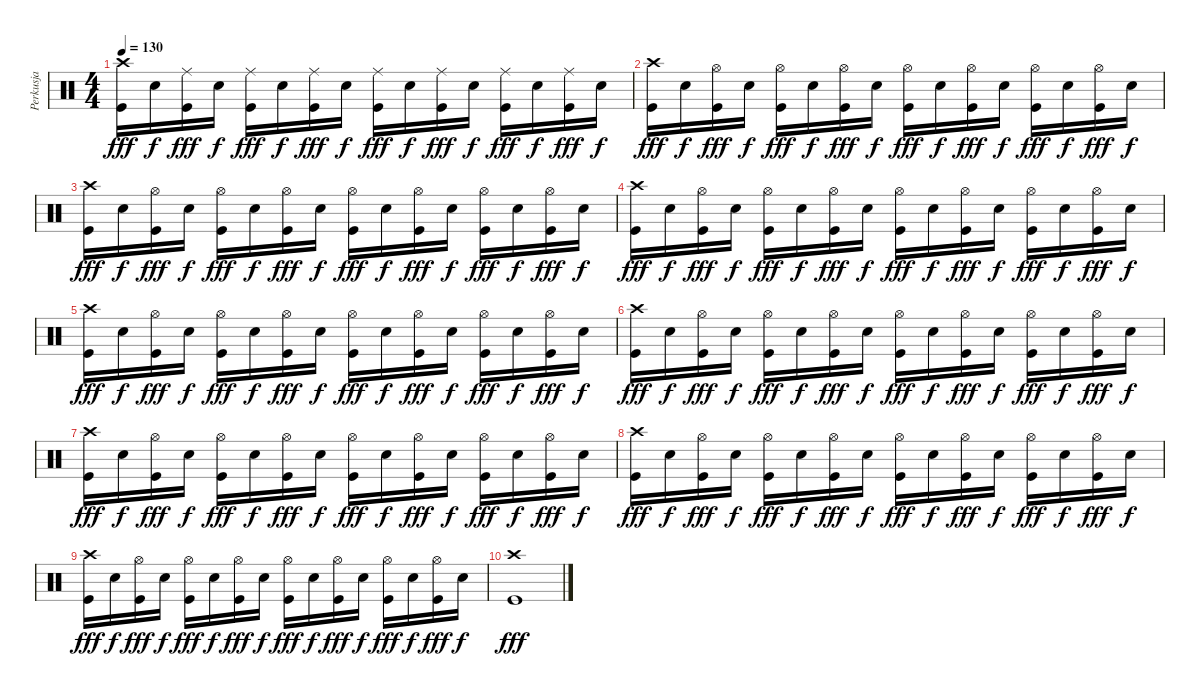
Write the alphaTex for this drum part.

\track ("Perkusja" "Perkusja") {instrument percussion}
\staff {score}
\articulation defaults
\ts (4 4)
\tempo 130
\clef neutral
\ks c
("Crash high (hit)" "Kick (hit)").16{dy fff} "Snare (hit) 2".16{dy f} ("Ride (middle)" "Kick (hit)").16{dy fff} "Snare (hit) 2".16{dy f} ("Ride (middle)" "Kick (hit)").16{dy fff} "Snare (hit) 2".16{dy f} ("Ride (middle)" "Kick (hit)").16{dy fff} "Snare (hit) 2".16{dy f} ("Ride (middle)" "Kick (hit)").16{dy fff} "Snare (hit) 2".16{dy f} ("Ride (middle)" "Kick (hit)").16{dy fff} "Snare (hit) 2".16{dy f} ("Ride (middle)" "Kick (hit)").16{dy fff} "Snare (hit) 2".16{dy f} ("Ride (middle)" "Kick (hit)").16{dy fff} "Snare (hit) 2".16{dy f} |
("Crash high (hit)" "Kick (hit)").16{dy fff} "Snare (hit) 2".16{dy f} ("Hi-Hat (open)" "Kick (hit)").16{dy fff} "Snare (hit) 2".16{dy f} ("Hi-Hat (open)" "Kick (hit)").16{dy fff} "Snare (hit) 2".16{dy f} ("Hi-Hat (open)" "Kick (hit)").16{dy fff} "Snare (hit) 2".16{dy f} ("Hi-Hat (open)" "Kick (hit)").16{dy fff} "Snare (hit) 2".16{dy f} ("Hi-Hat (open)" "Kick (hit)").16{dy fff} "Snare (hit) 2".16{dy f} ("Hi-Hat (open)" "Kick (hit)").16{dy fff} "Snare (hit) 2".16{dy f} ("Hi-Hat (open)" "Kick (hit)").16{dy fff} "Snare (hit) 2".16{dy f} |
("Crash high (hit)" "Kick (hit)").16{dy fff} "Snare (hit) 2".16{dy f} ("Hi-Hat (open)" "Kick (hit)").16{dy fff} "Snare (hit) 2".16{dy f} ("Hi-Hat (open)" "Kick (hit)").16{dy fff} "Snare (hit) 2".16{dy f} ("Hi-Hat (open)" "Kick (hit)").16{dy fff} "Snare (hit) 2".16{dy f} ("Hi-Hat (open)" "Kick (hit)").16{dy fff} "Snare (hit) 2".16{dy f} ("Hi-Hat (open)" "Kick (hit)").16{dy fff} "Snare (hit) 2".16{dy f} ("Hi-Hat (open)" "Kick (hit)").16{dy fff} "Snare (hit) 2".16{dy f} ("Hi-Hat (open)" "Kick (hit)").16{dy fff} "Snare (hit) 2".16{dy f} |
("Crash high (hit)" "Kick (hit)").16{dy fff} "Snare (hit) 2".16{dy f} ("Hi-Hat (open)" "Kick (hit)").16{dy fff} "Snare (hit) 2".16{dy f} ("Hi-Hat (open)" "Kick (hit)").16{dy fff} "Snare (hit) 2".16{dy f} ("Hi-Hat (open)" "Kick (hit)").16{dy fff} "Snare (hit) 2".16{dy f} ("Hi-Hat (open)" "Kick (hit)").16{dy fff} "Snare (hit) 2".16{dy f} ("Hi-Hat (open)" "Kick (hit)").16{dy fff} "Snare (hit) 2".16{dy f} ("Hi-Hat (open)" "Kick (hit)").16{dy fff} "Snare (hit) 2".16{dy f} ("Hi-Hat (open)" "Kick (hit)").16{dy fff} "Snare (hit) 2".16{dy f} |
("Crash high (hit)" "Kick (hit)").16{dy fff} "Snare (hit) 2".16{dy f} ("Hi-Hat (open)" "Kick (hit)").16{dy fff} "Snare (hit) 2".16{dy f} ("Hi-Hat (open)" "Kick (hit)").16{dy fff} "Snare (hit) 2".16{dy f} ("Hi-Hat (open)" "Kick (hit)").16{dy fff} "Snare (hit) 2".16{dy f} ("Hi-Hat (open)" "Kick (hit)").16{dy fff} "Snare (hit) 2".16{dy f} ("Hi-Hat (open)" "Kick (hit)").16{dy fff} "Snare (hit) 2".16{dy f} ("Hi-Hat (open)" "Kick (hit)").16{dy fff} "Snare (hit) 2".16{dy f} ("Hi-Hat (open)" "Kick (hit)").16{dy fff} "Snare (hit) 2".16{dy f} |
("Crash high (hit)" "Kick (hit)").16{dy fff} "Snare (hit) 2".16{dy f} ("Hi-Hat (open)" "Kick (hit)").16{dy fff} "Snare (hit) 2".16{dy f} ("Hi-Hat (open)" "Kick (hit)").16{dy fff} "Snare (hit) 2".16{dy f} ("Hi-Hat (open)" "Kick (hit)").16{dy fff} "Snare (hit) 2".16{dy f} ("Hi-Hat (open)" "Kick (hit)").16{dy fff} "Snare (hit) 2".16{dy f} ("Hi-Hat (open)" "Kick (hit)").16{dy fff} "Snare (hit) 2".16{dy f} ("Hi-Hat (open)" "Kick (hit)").16{dy fff} "Snare (hit) 2".16{dy f} ("Hi-Hat (open)" "Kick (hit)").16{dy fff} "Snare (hit) 2".16{dy f} |
("Crash high (hit)" "Kick (hit)").16{dy fff} "Snare (hit) 2".16{dy f} ("Hi-Hat (open)" "Kick (hit)").16{dy fff} "Snare (hit) 2".16{dy f} ("Hi-Hat (open)" "Kick (hit)").16{dy fff} "Snare (hit) 2".16{dy f} ("Hi-Hat (open)" "Kick (hit)").16{dy fff} "Snare (hit) 2".16{dy f} ("Hi-Hat (open)" "Kick (hit)").16{dy fff} "Snare (hit) 2".16{dy f} ("Hi-Hat (open)" "Kick (hit)").16{dy fff} "Snare (hit) 2".16{dy f} ("Hi-Hat (open)" "Kick (hit)").16{dy fff} "Snare (hit) 2".16{dy f} ("Hi-Hat (open)" "Kick (hit)").16{dy fff} "Snare (hit) 2".16{dy f} |
("Crash high (hit)" "Kick (hit)").16{dy fff} "Snare (hit) 2".16{dy f} ("Hi-Hat (open)" "Kick (hit)").16{dy fff} "Snare (hit) 2".16{dy f} ("Hi-Hat (open)" "Kick (hit)").16{dy fff} "Snare (hit) 2".16{dy f} ("Hi-Hat (open)" "Kick (hit)").16{dy fff} "Snare (hit) 2".16{dy f} ("Hi-Hat (open)" "Kick (hit)").16{dy fff} "Snare (hit) 2".16{dy f} ("Hi-Hat (open)" "Kick (hit)").16{dy fff} "Snare (hit) 2".16{dy f} ("Hi-Hat (open)" "Kick (hit)").16{dy fff} "Snare (hit) 2".16{dy f} ("Hi-Hat (open)" "Kick (hit)").16{dy fff} "Snare (hit) 2".16{dy f} |
("Crash high (hit)" "Kick (hit)").16{dy fff} "Snare (hit) 2".16{dy f} ("Hi-Hat (open)" "Kick (hit)").16{dy fff} "Snare (hit) 2".16{dy f} ("Hi-Hat (open)" "Kick (hit)").16{dy fff} "Snare (hit) 2".16{dy f} ("Hi-Hat (open)" "Kick (hit)").16{dy fff} "Snare (hit) 2".16{dy f} ("Hi-Hat (open)" "Kick (hit)").16{dy fff} "Snare (hit) 2".16{dy f} ("Hi-Hat (open)" "Kick (hit)").16{dy fff} "Snare (hit) 2".16{dy f} ("Hi-Hat (open)" "Kick (hit)").16{dy fff} "Snare (hit) 2".16{dy f} ("Hi-Hat (open)" "Kick (hit)").16{dy fff} "Snare (hit) 2".16{dy f} |
("Crash high (hit)" "Kick (hit)").1{dy fff}
